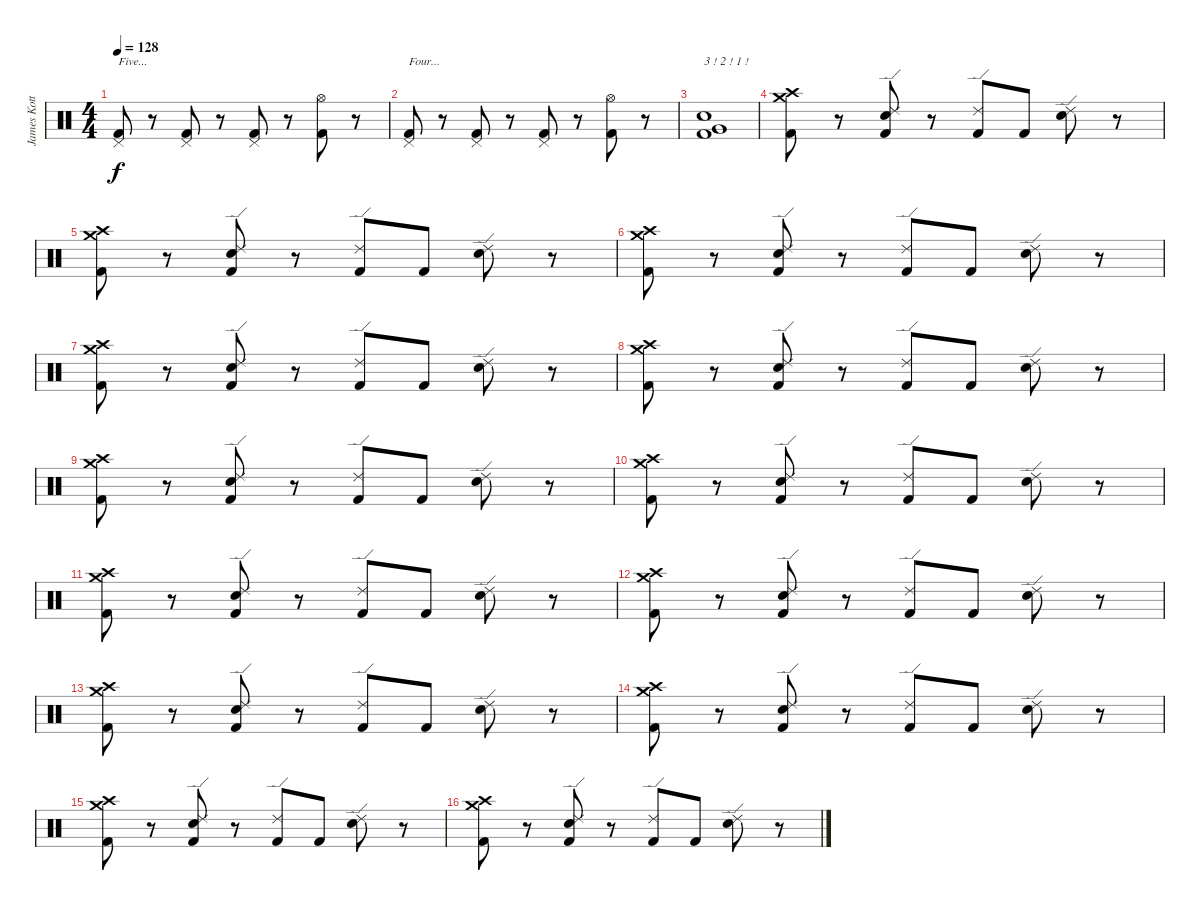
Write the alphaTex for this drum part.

\track ("James Kottak" "James Kott") {instrument percussion}
\staff {score}
\articulation defaults
\ts (4 4)
\tempo 128
\clef neutral
\ks c
("Pedal Hi-Hat (hit)" "Kick (hit) 2").8{txt "Five..." dy f} r.8 ("Pedal Hi-Hat (hit)" "Kick (hit) 2").8 r.8 ("Pedal Hi-Hat (hit)" "Kick (hit) 2").8 r.8 ("Hi-Hat (open)" "Kick (hit) 2").8 r.8 |
("Pedal Hi-Hat (hit)" "Kick (hit) 2").8{txt "Four..."} r.8 ("Pedal Hi-Hat (hit)" "Kick (hit) 2").8 r.8 ("Pedal Hi-Hat (hit)" "Kick (hit) 2").8 r.8 ("Hi-Hat (open)" "Kick (hit) 2").8 r.8 |
("Electric Snare (hit)" "Very Low Tom (hit)" "Kick (hit) 2").1{bd 120 txt "3 ! 2 ! 1 !"} |
("Crash high (hit)" "Crash medium (hit)" "Kick (hit) 2").8 r.8 ("Ride (edge) 2" "Electric Snare (hit)" "Kick (hit) 2").8 r.8 ("Ride (edge) 2" "Kick (hit) 2").8 "Kick (hit) 2".8 ("Ride (edge) 2" "Electric Snare (hit)").8 r.8 |
("Crash high (hit)" "Crash medium (hit)" "Kick (hit) 2").8 r.8 ("Ride (edge) 2" "Electric Snare (hit)" "Kick (hit) 2").8 r.8 ("Ride (edge) 2" "Kick (hit) 2").8 "Kick (hit) 2".8 ("Ride (edge) 2" "Electric Snare (hit)").8 r.8 |
("Crash high (hit)" "Crash medium (hit)" "Kick (hit) 2").8 r.8 ("Ride (edge) 2" "Electric Snare (hit)" "Kick (hit) 2").8 r.8 ("Ride (edge) 2" "Kick (hit) 2").8 "Kick (hit) 2".8 ("Ride (edge) 2" "Electric Snare (hit)").8 r.8 |
("Crash high (hit)" "Crash medium (hit)" "Kick (hit) 2").8 r.8 ("Ride (edge) 2" "Electric Snare (hit)" "Kick (hit) 2").8 r.8 ("Ride (edge) 2" "Kick (hit) 2").8 "Kick (hit) 2".8 ("Ride (edge) 2" "Electric Snare (hit)").8 r.8 |
("Crash high (hit)" "Crash medium (hit)" "Kick (hit) 2").8 r.8 ("Ride (edge) 2" "Electric Snare (hit)" "Kick (hit) 2").8 r.8 ("Ride (edge) 2" "Kick (hit) 2").8 "Kick (hit) 2".8 ("Ride (edge) 2" "Electric Snare (hit)").8 r.8 |
("Crash high (hit)" "Crash medium (hit)" "Kick (hit) 2").8 r.8 ("Ride (edge) 2" "Electric Snare (hit)" "Kick (hit) 2").8 r.8 ("Ride (edge) 2" "Kick (hit) 2").8 "Kick (hit) 2".8 ("Ride (edge) 2" "Electric Snare (hit)").8 r.8 |
("Crash high (hit)" "Crash medium (hit)" "Kick (hit) 2").8 r.8 ("Ride (edge) 2" "Electric Snare (hit)" "Kick (hit) 2").8 r.8 ("Ride (edge) 2" "Kick (hit) 2").8 "Kick (hit) 2".8 ("Ride (edge) 2" "Electric Snare (hit)").8 r.8 |
("Crash high (hit)" "Crash medium (hit)" "Kick (hit) 2").8 r.8 ("Ride (edge) 2" "Electric Snare (hit)" "Kick (hit) 2").8 r.8 ("Ride (edge) 2" "Kick (hit) 2").8 "Kick (hit) 2".8 ("Ride (edge) 2" "Electric Snare (hit)").8 r.8 |
("Crash high (hit)" "Crash medium (hit)" "Kick (hit) 2").8 r.8 ("Ride (edge) 2" "Electric Snare (hit)" "Kick (hit) 2").8 r.8 ("Ride (edge) 2" "Kick (hit) 2").8 "Kick (hit) 2".8 ("Ride (edge) 2" "Electric Snare (hit)").8 r.8 |
("Crash high (hit)" "Crash medium (hit)" "Kick (hit) 2").8 r.8 ("Ride (edge) 2" "Electric Snare (hit)" "Kick (hit) 2").8 r.8 ("Ride (edge) 2" "Kick (hit) 2").8 "Kick (hit) 2".8 ("Ride (edge) 2" "Electric Snare (hit)").8 r.8 |
("Crash high (hit)" "Crash medium (hit)" "Kick (hit) 2").8 r.8 ("Ride (edge) 2" "Electric Snare (hit)" "Kick (hit) 2").8 r.8 ("Ride (edge) 2" "Kick (hit) 2").8 "Kick (hit) 2".8 ("Ride (edge) 2" "Electric Snare (hit)").8 r.8 |
("Crash high (hit)" "Crash medium (hit)" "Kick (hit) 2").8 r.8 ("Ride (edge) 2" "Electric Snare (hit)" "Kick (hit) 2").8 r.8 ("Ride (edge) 2" "Kick (hit) 2").8 "Kick (hit) 2".8 ("Ride (edge) 2" "Electric Snare (hit)").8 r.8 |
("Crash high (hit)" "Crash medium (hit)" "Kick (hit) 2").8 r.8 ("Ride (edge) 2" "Electric Snare (hit)" "Kick (hit) 2").8 r.8 ("Ride (edge) 2" "Kick (hit) 2").8 "Kick (hit) 2".8 ("Ride (edge) 2" "Electric Snare (hit)").8 r.8
